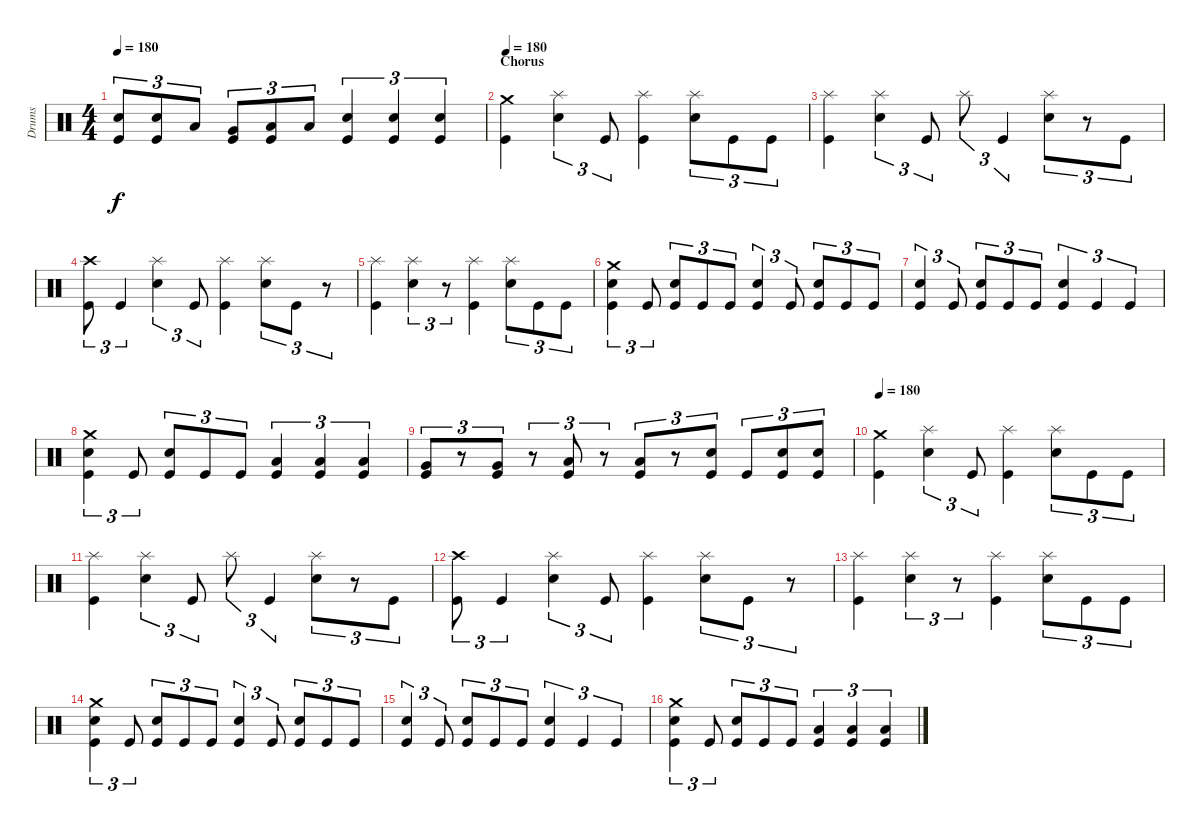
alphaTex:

\track ("Drums" "Drums") {instrument percussion}
\staff {score}
\articulation defaults
\ts (4 4)
\tempo 180
\clef neutral
\ks c
("Electric Snare (hit)" "Kick (hit)").8{tu (3 2) dy f} ("Electric Snare (hit)" "Kick (hit)").8{tu (3 2)} "Low Tom (hit)".8{tu (3 2)} ("Very Low Tom (hit)" "Kick (hit)").8{tu (3 2)} ("Low Floor Tom (hit)" "Kick (hit)").8{tu (3 2)} "Low Floor Tom (hit)".8{tu (3 2)} ("Electric Snare (hit)" "Kick (hit)").4{tu (3 2)} ("Electric Snare (hit)" "Kick (hit)").4{tu (3 2)} ("Electric Snare (hit)" "Kick (hit)").4{tu (3 2)} |
\section ("" "Chorus")
\tempo 180
("Crash medium (hit)" "Kick (hit)").4 ("Splash (hit)" "Electric Snare (hit)").4{tu (3 2)} "Kick (hit)".8{tu (3 2)} ("Splash (hit)" "Kick (hit)").4 ("Splash (hit)" "Electric Snare (hit)").8{tu (3 2)} "Kick (hit)".8{tu (3 2)} "Kick (hit)".8{tu (3 2)} |
("Splash (hit)" "Kick (hit)").4 ("Splash (hit)" "Electric Snare (hit)").4{tu (3 2)} "Kick (hit)".8{tu (3 2)} "Splash (hit)".8{tu (3 2)} "Kick (hit)".4{tu (3 2)} ("Splash (hit)" "Electric Snare (hit)").8{tu (3 2)} r.8{tu (3 2)} "Kick (hit)".8{tu (3 2)} |
("Crash high (hit)" "Kick (hit)").8{tu (3 2)} "Kick (hit)".4{tu (3 2)} ("Splash (hit)" "Electric Snare (hit)").4{tu (3 2)} "Kick (hit)".8{tu (3 2)} ("Splash (hit)" "Kick (hit)").4 ("Splash (hit)" "Electric Snare (hit)").8{tu (3 2)} "Kick (hit)".8{tu (3 2)} r.8{tu (3 2)} |
("Splash (hit)" "Kick (hit)").4 ("Splash (hit)" "Electric Snare (hit)").4{tu (3 2)} r.8{tu (3 2)} ("Splash (hit)" "Kick (hit)").4 ("Splash (hit)" "Electric Snare (hit)").8{tu (3 2)} "Kick (hit)".8{tu (3 2)} "Kick (hit)".8{tu (3 2)} |
("Crash medium (hit)" "Electric Snare (hit)" "Kick (hit)").4{tu (3 2)} "Kick (hit)".8{tu (3 2)} ("Electric Snare (hit)" "Kick (hit)").8{tu (3 2)} "Kick (hit)".8{tu (3 2)} "Kick (hit)".8{tu (3 2)} ("Electric Snare (hit)" "Kick (hit)").4{tu (3 2)} "Kick (hit)".8{tu (3 2)} ("Electric Snare (hit)" "Kick (hit)").8{tu (3 2)} "Kick (hit)".8{tu (3 2)} "Kick (hit)".8{tu (3 2)} |
("Electric Snare (hit)" "Kick (hit)").4{tu (3 2)} "Kick (hit)".8{tu (3 2)} ("Electric Snare (hit)" "Kick (hit)").8{tu (3 2)} "Kick (hit)".8{tu (3 2)} "Kick (hit)".8{tu (3 2)} ("Electric Snare (hit)" "Kick (hit)").4{tu (3 2)} "Kick (hit)".4{tu (3 2)} "Kick (hit)".4{tu (3 2)} |
("Crash medium (hit)" "Electric Snare (hit)" "Kick (hit)").4{tu (3 2)} "Kick (hit)".8{tu (3 2)} ("Electric Snare (hit)" "Kick (hit)").8{tu (3 2)} "Kick (hit)".8{tu (3 2)} "Kick (hit)".8{tu (3 2)} ("Low Floor Tom (hit)" "Kick (hit)").4{tu (3 2)} ("Low Floor Tom (hit)" "Kick (hit)").4{tu (3 2)} ("Low Floor Tom (hit)" "Kick (hit)").4{tu (3 2)} |
("Very Low Tom (hit)" "Kick (hit)").8{tu (3 2)} r.8{tu (3 2)} ("Very Low Tom (hit)" "Kick (hit)").8{tu (3 2)} r.8{tu (3 2)} ("Low Floor Tom (hit)" "Kick (hit)").8{tu (3 2)} r.8{tu (3 2)} ("Low Floor Tom (hit)" "Kick (hit)").8{tu (3 2)} r.8{tu (3 2)} ("Electric Snare (hit)" "Kick (hit)").8{tu (3 2)} "Kick (hit)".8{tu (3 2)} ("Electric Snare (hit)" "Kick (hit)").8{tu (3 2)} ("Electric Snare (hit)" "Kick (hit)").8{tu (3 2)} |
\tempo 180
("Crash medium (hit)" "Kick (hit)").4 ("Splash (hit)" "Electric Snare (hit)").4{tu (3 2)} "Kick (hit)".8{tu (3 2)} ("Splash (hit)" "Kick (hit)").4 ("Splash (hit)" "Electric Snare (hit)").8{tu (3 2)} "Kick (hit)".8{tu (3 2)} "Kick (hit)".8{tu (3 2)} |
("Splash (hit)" "Kick (hit)").4 ("Splash (hit)" "Electric Snare (hit)").4{tu (3 2)} "Kick (hit)".8{tu (3 2)} "Splash (hit)".8{tu (3 2)} "Kick (hit)".4{tu (3 2)} ("Splash (hit)" "Electric Snare (hit)").8{tu (3 2)} r.8{tu (3 2)} "Kick (hit)".8{tu (3 2)} |
("Crash high (hit)" "Kick (hit)").8{tu (3 2)} "Kick (hit)".4{tu (3 2)} ("Splash (hit)" "Electric Snare (hit)").4{tu (3 2)} "Kick (hit)".8{tu (3 2)} ("Splash (hit)" "Kick (hit)").4 ("Splash (hit)" "Electric Snare (hit)").8{tu (3 2)} "Kick (hit)".8{tu (3 2)} r.8{tu (3 2)} |
("Splash (hit)" "Kick (hit)").4 ("Splash (hit)" "Electric Snare (hit)").4{tu (3 2)} r.8{tu (3 2)} ("Splash (hit)" "Kick (hit)").4 ("Splash (hit)" "Electric Snare (hit)").8{tu (3 2)} "Kick (hit)".8{tu (3 2)} "Kick (hit)".8{tu (3 2)} |
("Crash medium (hit)" "Electric Snare (hit)" "Kick (hit)").4{tu (3 2)} "Kick (hit)".8{tu (3 2)} ("Electric Snare (hit)" "Kick (hit)").8{tu (3 2)} "Kick (hit)".8{tu (3 2)} "Kick (hit)".8{tu (3 2)} ("Electric Snare (hit)" "Kick (hit)").4{tu (3 2)} "Kick (hit)".8{tu (3 2)} ("Electric Snare (hit)" "Kick (hit)").8{tu (3 2)} "Kick (hit)".8{tu (3 2)} "Kick (hit)".8{tu (3 2)} |
("Electric Snare (hit)" "Kick (hit)").4{tu (3 2)} "Kick (hit)".8{tu (3 2)} ("Electric Snare (hit)" "Kick (hit)").8{tu (3 2)} "Kick (hit)".8{tu (3 2)} "Kick (hit)".8{tu (3 2)} ("Electric Snare (hit)" "Kick (hit)").4{tu (3 2)} "Kick (hit)".4{tu (3 2)} "Kick (hit)".4{tu (3 2)} |
("Crash medium (hit)" "Electric Snare (hit)" "Kick (hit)").4{tu (3 2)} "Kick (hit)".8{tu (3 2)} ("Electric Snare (hit)" "Kick (hit)").8{tu (3 2)} "Kick (hit)".8{tu (3 2)} "Kick (hit)".8{tu (3 2)} ("Low Floor Tom (hit)" "Kick (hit)").4{tu (3 2)} ("Low Floor Tom (hit)" "Kick (hit)").4{tu (3 2)} ("Low Floor Tom (hit)" "Kick (hit)").4{tu (3 2)}
